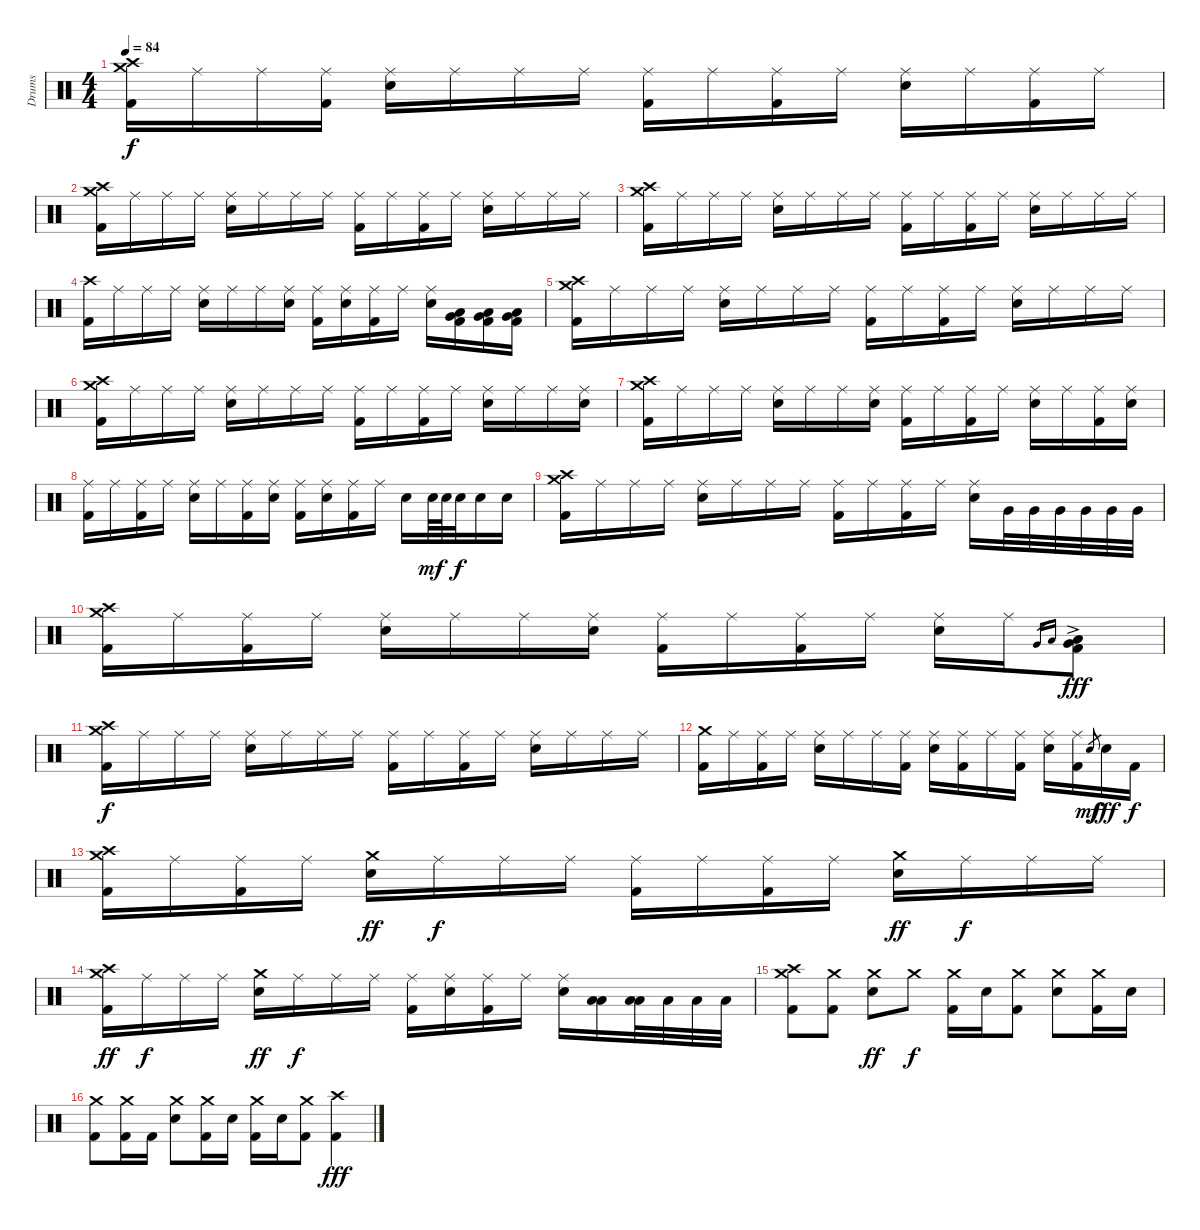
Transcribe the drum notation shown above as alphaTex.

\track ("Drums" "Drums") {instrument percussion}
\staff {score}
\articulation defaults
\ts (4 4)
\tempo 84
\clef neutral
\ks c
("Crash high (hit)" "Crash medium (hit)" "Kick (hit) 2").16{dy f} "Ride (middle)".16 "Ride (middle)".16 ("Ride (middle)" "Kick (hit) 2").16 ("Ride (middle)" "Snare (hit) 2").16 "Ride (middle)".16 "Ride (middle)".16 "Ride (middle)".16 ("Ride (middle)" "Kick (hit) 2").16 "Ride (middle)".16 ("Ride (middle)" "Kick (hit) 2").16 "Ride (middle)".16 ("Ride (middle)" "Snare (hit) 2").16 "Ride (middle)".16 ("Ride (middle)" "Kick (hit) 2").16 "Ride (middle)".16 |
("Crash high (hit)" "Crash medium (hit)" "Kick (hit) 2").16 "Ride (middle)".16 "Ride (middle)".16 "Ride (middle)".16 ("Ride (middle)" "Snare (hit) 2").16 "Ride (middle)".16 "Ride (middle)".16 "Ride (middle)".16 ("Ride (middle)" "Kick (hit) 2").16 "Ride (middle)".16 ("Ride (middle)" "Kick (hit) 2").16 "Ride (middle)".16 ("Ride (middle)" "Snare (hit) 2").16 "Ride (middle)".16 "Ride (middle)".16 "Ride (middle)".16 |
("Crash high (hit)" "Crash medium (hit)" "Kick (hit) 2").16 "Ride (middle)".16 "Ride (middle)".16 "Ride (middle)".16 ("Ride (middle)" "Snare (hit) 2").16 "Ride (middle)".16 "Ride (middle)".16 "Ride (middle)".16 ("Ride (middle)" "Kick (hit) 2").16 "Ride (middle)".16 ("Ride (middle)" "Kick (hit) 2").16 "Ride (middle)".16 ("Ride (middle)" "Snare (hit) 2").16 "Ride (middle)".16 "Ride (middle)".16 "Ride (middle)".16 |
("Crash high (hit)" "Kick (hit) 2").16 "Ride (middle)".16 "Ride (middle)".16 "Ride (middle)".16 ("Ride (middle)" "Snare (hit) 2").16 "Ride (middle)".16 "Ride (middle)".16 ("Ride (middle)" "Snare (hit) 2").16 ("Ride (middle)" "Kick (hit) 2").16 ("Ride (middle)" "Snare (hit) 2").16 ("Ride (middle)" "Kick (hit) 2").16 "Ride (middle)".16 ("Ride (middle)" "Snare (hit) 2").16 ("Very Low Tom (hit)" "Low Floor Tom (hit)" "Kick (hit) 2").16 ("Very Low Tom (hit)" "Low Floor Tom (hit)" "Kick (hit) 2").16 ("Very Low Tom (hit)" "Low Floor Tom (hit)" "Kick (hit) 2").16 |
("Crash high (hit)" "Crash medium (hit)" "Kick (hit) 2").16 "Ride (middle)".16 "Ride (middle)".16 "Ride (middle)".16 ("Ride (middle)" "Snare (hit) 2").16 "Ride (middle)".16 "Ride (middle)".16 "Ride (middle)".16 ("Ride (middle)" "Kick (hit) 2").16 "Ride (middle)".16 ("Ride (middle)" "Kick (hit) 2").16 "Ride (middle)".16 ("Ride (middle)" "Snare (hit) 2").16 "Ride (middle)".16 "Ride (middle)".16 "Ride (middle)".16 |
("Crash high (hit)" "Crash medium (hit)" "Kick (hit) 2").16 "Ride (middle)".16 "Ride (middle)".16 "Ride (middle)".16 ("Ride (middle)" "Snare (hit) 2").16 "Ride (middle)".16 "Ride (middle)".16 "Ride (middle)".16 ("Ride (middle)" "Kick (hit) 2").16 "Ride (middle)".16 ("Ride (middle)" "Kick (hit) 2").16 "Ride (middle)".16 ("Ride (middle)" "Snare (hit) 2").16 "Ride (middle)".16 "Ride (middle)".16 ("Ride (middle)" "Snare (hit) 2").16 |
("Crash high (hit)" "Crash medium (hit)" "Kick (hit) 2").16 "Ride (middle)".16 "Ride (middle)".16 "Ride (middle)".16 ("Ride (middle)" "Snare (hit) 2").16 "Ride (middle)".16 "Ride (middle)".16 ("Ride (middle)" "Snare (hit) 2").16 ("Ride (middle)" "Kick (hit) 2").16 "Ride (middle)".16 ("Ride (middle)" "Kick (hit) 2").16 "Ride (middle)".16 ("Ride (middle)" "Snare (hit) 2").16 "Ride (middle)".16 ("Ride (middle)" "Kick (hit) 2").16 ("Ride (middle)" "Snare (hit) 2").16 |
("Ride (middle)" "Kick (hit) 2").16 "Ride (middle)".16 ("Ride (middle)" "Kick (hit) 2").16 "Ride (middle)".16 ("Ride (middle)" "Snare (hit) 2").16 "Ride (middle)".16 ("Ride (middle)" "Kick (hit) 2").16 ("Ride (middle)" "Snare (hit) 2").16 ("Ride (middle)" "Kick (hit) 2").16 ("Ride (middle)" "Snare (hit) 2").16 ("Ride (middle)" "Kick (hit) 2").16 "Ride (middle)".16 "Snare (hit) 2".16 "Snare (hit) 2".64{dy mf} "Snare (hit) 2".64 "Snare (hit) 2".32{dy f} "Snare (hit) 2".16 "Snare (hit) 2".16 |
("Crash high (hit)" "Crash medium (hit)" "Kick (hit) 2").16 "Ride (middle)".16 "Ride (middle)".16 "Ride (middle)".16 ("Ride (middle)" "Snare (hit) 2").16 "Ride (middle)".16 "Ride (middle)".16 "Ride (middle)".16 ("Ride (middle)" "Kick (hit) 2").16 "Ride (middle)".16 ("Ride (middle)" "Kick (hit) 2").16 "Ride (middle)".16 ("Ride (middle)" "Snare (hit) 2").16 "Very Low Tom (hit)".32 "Very Low Tom (hit)".32 "Very Low Tom (hit)".32 "Very Low Tom (hit)".32 "Very Low Tom (hit)".32 "Very Low Tom (hit)".32 |
("Crash high (hit)" "Crash medium (hit)" "Kick (hit) 2").16 "Ride (middle)".16 ("Ride (middle)" "Kick (hit) 2").16 "Ride (middle)".16 ("Ride (middle)" "Snare (hit) 2").16 "Ride (middle)".16 "Ride (middle)".16 ("Ride (middle)" "Snare (hit) 2").16 ("Ride (middle)" "Kick (hit) 2").16 "Ride (middle)".16 ("Ride (middle)" "Kick (hit) 2").16 "Ride (middle)".16 ("Ride (middle)" "Snare (hit) 2").16 "Ride (middle)".16 "Very Low Tom (hit)".16{gr} "Low Floor Tom (hit)".16{gr} ("Very Low Tom (hit)"{ac} "Low Floor Tom (hit)"{ac} "Kick (hit) 2").8{dy fff} |
("Crash high (hit)" "Crash medium (hit)" "Kick (hit) 2").16{dy f} "Ride (middle)".16 "Ride (middle)".16 "Ride (middle)".16 ("Ride (middle)" "Snare (hit) 2").16 "Ride (middle)".16 "Ride (middle)".16 "Ride (middle)".16 ("Ride (middle)" "Kick (hit) 2").16 "Ride (middle)".16 ("Ride (middle)" "Kick (hit) 2").16 "Ride (middle)".16 ("Ride (middle)" "Snare (hit) 2").16 "Ride (middle)".16 "Ride (middle)".16 "Ride (middle)".16 |
("Crash medium (hit)" "Kick (hit) 2").16 "Ride (middle)".16 ("Ride (middle)" "Kick (hit) 2").16 "Ride (middle)".16 ("Ride (middle)" "Snare (hit) 2").16 "Ride (middle)".16 "Ride (middle)".16 ("Ride (middle)" "Kick (hit) 2").16 ("Ride (middle)" "Snare (hit) 2").16 ("Ride (middle)" "Kick (hit) 2").16 "Ride (middle)".16 ("Ride (middle)" "Kick (hit) 2").16 ("Ride (middle)" "Snare (hit) 2").16 ("Ride (middle)" "Kick (hit) 2").16 "Snare (hit) 2".8{gr dy mf} "Snare (hit) 2".16{dy fff} "Kick (hit) 2".16{dy f} |
("Crash high (hit)" "Crash medium (hit)" "Kick (hit) 2").16 "Ride (middle)".16 ("Ride (middle)" "Kick (hit) 2").16 "Ride (middle)".16 ("Crash medium (hit)" "Snare (hit) 2").16{dy ff} "Ride (middle)".16{dy f} "Ride (middle)".16 "Ride (middle)".16 ("Ride (middle)" "Kick (hit) 2").16 "Ride (middle)".16 ("Ride (middle)" "Kick (hit) 2").16 "Ride (middle)".16 ("Crash medium (hit)" "Snare (hit) 2").16{dy ff} "Ride (middle)".16{dy f} "Ride (middle)".16 "Ride (middle)".16 |
("Crash high (hit)" "Crash medium (hit)" "Kick (hit) 2").16{dy ff} "Ride (middle)".16{dy f} "Ride (middle)".16 "Ride (middle)".16 ("Crash medium (hit)" "Snare (hit) 2").16{dy ff} "Ride (middle)".16{dy f} "Ride (middle)".16 "Ride (middle)".16 ("Ride (middle)" "Kick (hit) 2").16 ("Ride (middle)" "Snare (hit) 2").16 ("Ride (middle)" "Kick (hit) 2").16 "Ride (middle)".16 ("Ride (middle)" "Snare (hit) 2").16 ("Low Tom (hit)" "Low Floor Tom (hit)").16 ("Low Tom (hit)" "Low Floor Tom (hit)").32 "Low Floor Tom (hit)".32 "Low Floor Tom (hit)".32 "Low Floor Tom (hit)".32 |
("Crash high (hit)" "Crash medium (hit)" "Kick (hit) 2").8 ("Crash medium (hit)" "Kick (hit) 2").8 ("Crash medium (hit)" "Snare (hit) 2").8{dy ff} "Crash medium (hit)".8{dy f} ("Crash medium (hit)" "Kick (hit) 2").16 "Snare (hit) 2".16 ("Crash medium (hit)" "Kick (hit) 2").8 ("Crash medium (hit)" "Snare (hit) 2").8 ("Crash medium (hit)" "Kick (hit) 2").16 "Snare (hit) 2".16 |
("Crash medium (hit)" "Kick (hit) 2").8 ("Crash medium (hit)" "Kick (hit) 2").16 "Kick (hit) 2".16 ("Crash medium (hit)" "Snare (hit) 2").8 ("Crash medium (hit)" "Kick (hit) 2").16 "Snare (hit) 2".16 ("Crash medium (hit)" "Kick (hit) 2").16 "Snare (hit) 2".16 ("Crash medium (hit)" "Kick (hit) 2").8 ("Crash high (hit)" "Kick (hit) 2").4{dy fff}
